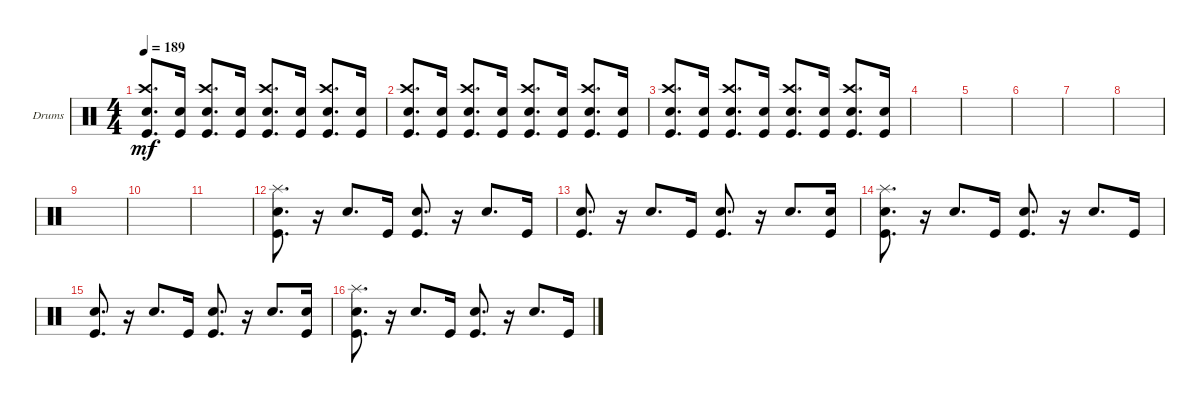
\defaultSystemsLayout 4
\bracketExtendMode groupsimilarinstruments
\firstSystemTrackNameOrientation horizontal
\otherSystemsTrackNameOrientation horizontal
\track ("Drumkit" "Drums") {instrument percussion}
\staff {score}
\articulation defaults
\ts (4 4)
\tempo 189
\clef neutral
\scale
0.333333
\ks c
("Kick (hit)" "Crash high (hit)" "Snare (hit) 2").8{d dy mf} ("Snare (hit) 2" "Kick (hit)").16 ("Kick (hit)" "Crash high (hit)" "Snare (hit) 2").8{d} ("Snare (hit) 2" "Kick (hit)").16 ("Kick (hit)" "Crash high (hit)" "Snare (hit) 2").8{d} ("Snare (hit) 2" "Kick (hit)").16 ("Kick (hit)" "Crash high (hit)" "Snare (hit) 2").8{d} ("Snare (hit) 2" "Kick (hit)").16 |
\scale
0.333333 ("Kick (hit)" "Crash high (hit)" "Snare (hit) 2").8{d} ("Snare (hit) 2" "Kick (hit)").16 ("Kick (hit)" "Crash high (hit)" "Snare (hit) 2").8{d} ("Snare (hit) 2" "Kick (hit)").16 ("Kick (hit)" "Crash high (hit)" "Snare (hit) 2").8{d} ("Snare (hit) 2" "Kick (hit)").16 ("Kick (hit)" "Crash high (hit)" "Snare (hit) 2").8{d} ("Snare (hit) 2" "Kick (hit)").16 |
\scale
0.333333 ("Kick (hit)" "Crash high (hit)" "Snare (hit) 2").8{d} ("Snare (hit) 2" "Kick (hit)").16 ("Kick (hit)" "Crash high (hit)" "Snare (hit) 2").8{d} ("Snare (hit) 2" "Kick (hit)").16 ("Kick (hit)" "Crash high (hit)" "Snare (hit) 2").8{d} ("Snare (hit) 2" "Kick (hit)").16 ("Kick (hit)" "Crash high (hit)" "Snare (hit) 2").8{d} ("Snare (hit) 2" "Kick (hit)").16 |
\scale
0.333333 |
\scale
0.333333 |
\scale
0.333333 |
\scale
0.333333 |
\scale
0.333333 |
\scale
0.333333 |
\scale
0.333333 |
\scale
0.333333 |
\scale
0.333333 ("Kick (hit)" "Snare (hit) 2" "Splash (hit)").8{d} r.16 "Snare (hit) 2".8{d} "Kick (hit)".16 ("Kick (hit)" "Snare (hit) 2").8{d} r.16 "Snare (hit) 2".8{d} "Kick (hit)".16 |
\scale
0.333333 ("Kick (hit)" "Snare (hit) 2").8{d} r.16 "Snare (hit) 2".8{d} "Kick (hit)".16 ("Kick (hit)" "Snare (hit) 2").8{d} r.16 "Snare (hit) 2".8{d} ("Kick (hit)" "Snare (hit) 2").16 |
\scale
0.333333 ("Kick (hit)" "Snare (hit) 2" "Splash (hit)").8{d} r.16 "Snare (hit) 2".8{d} "Kick (hit)".16 ("Kick (hit)" "Snare (hit) 2").8{d} r.16 "Snare (hit) 2".8{d} "Kick (hit)".16 |
\scale
0.333333 ("Kick (hit)" "Snare (hit) 2").8{d} r.16 "Snare (hit) 2".8{d} "Kick (hit)".16 ("Kick (hit)" "Snare (hit) 2").8{d} r.16 "Snare (hit) 2".8{d} ("Kick (hit)" "Snare (hit) 2").16 |
\scale
0.333333 ("Kick (hit)" "Snare (hit) 2" "Splash (hit)").8{d} r.16 "Snare (hit) 2".8{d} "Kick (hit)".16 ("Kick (hit)" "Snare (hit) 2").8{d} r.16 "Snare (hit) 2".8{d} "Kick (hit)".16
